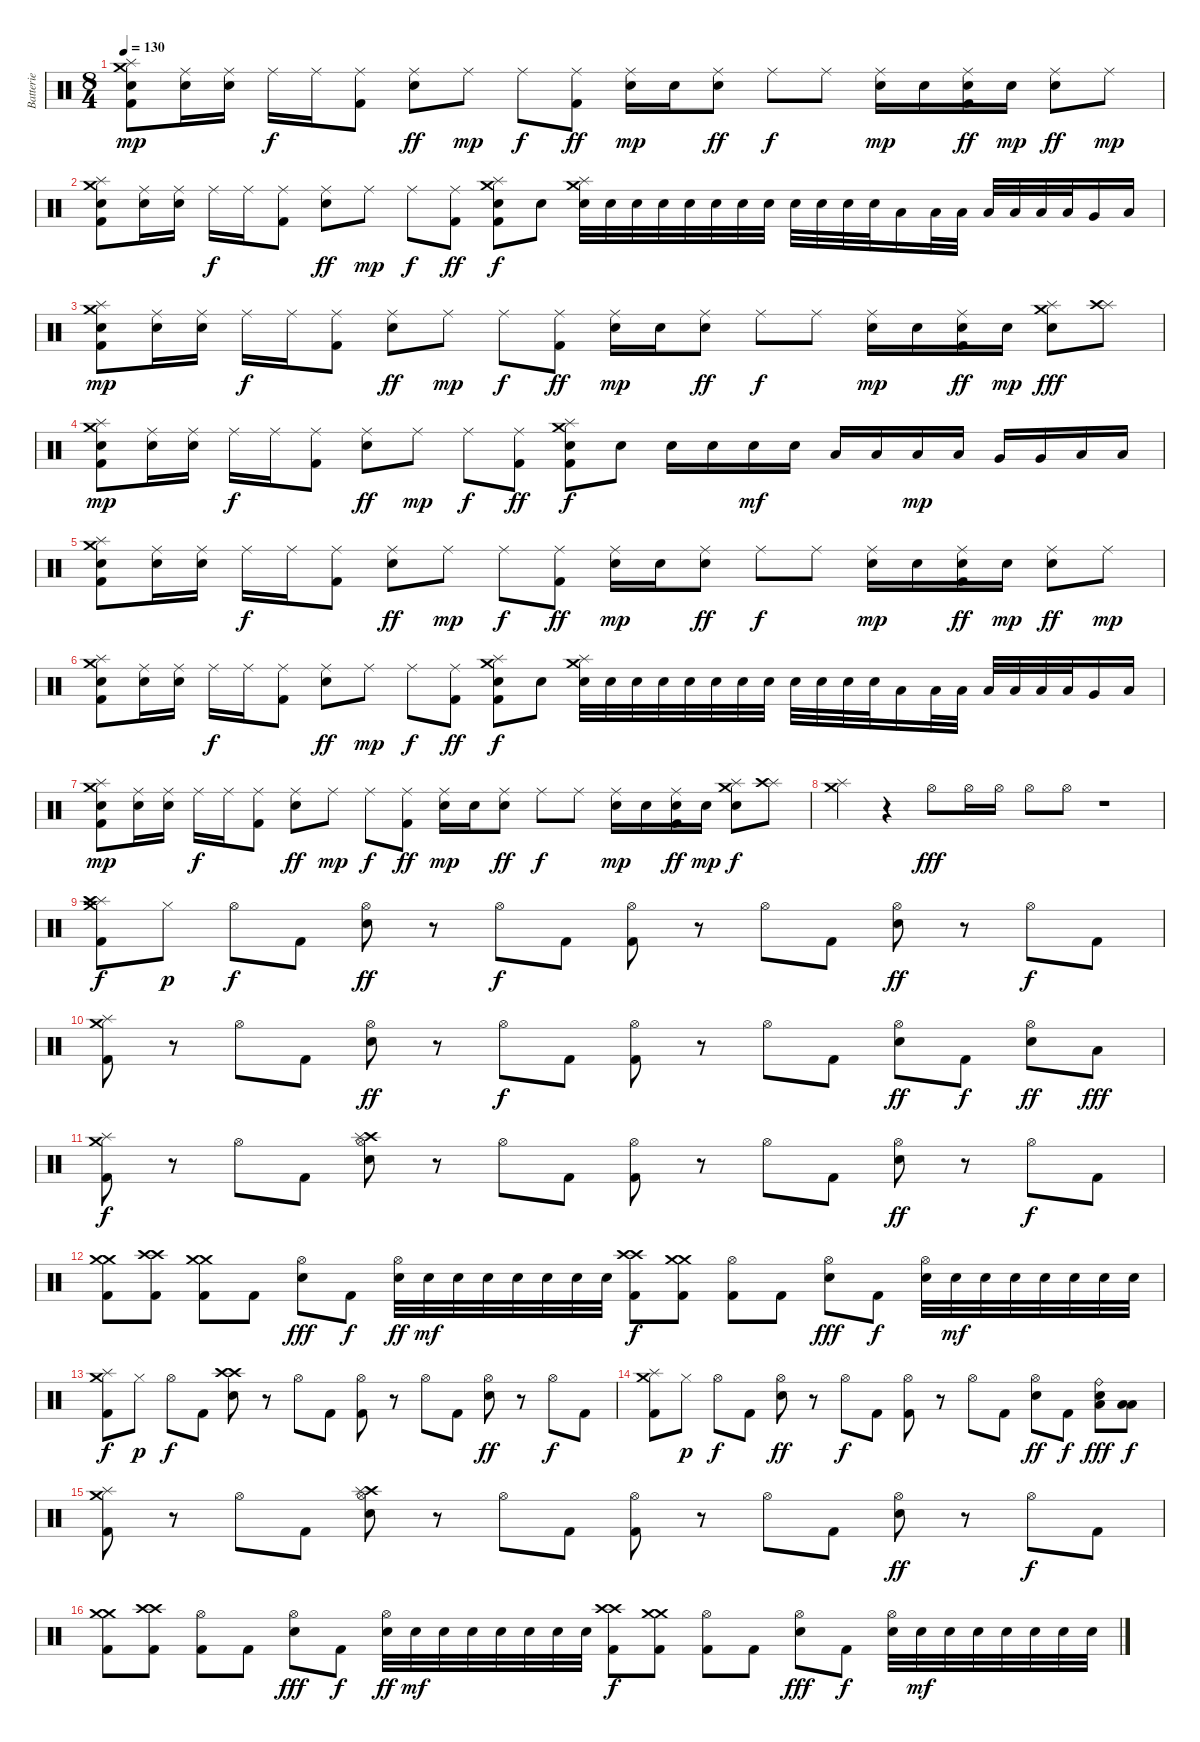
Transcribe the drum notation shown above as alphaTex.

\track ("Batterie" "Batterie") {instrument percussion}
\staff {score}
\articulation defaults
\ts (8 4)
\tempo 130
\clef neutral
\ks c
("Crash medium (hit)" "Splash (hit)" "Electric Snare (hit)" "Kick (hit) 2").8{dy mp} ("Ride (middle)" "Electric Snare (hit)").16 ("Ride (middle)" "Electric Snare (hit)").16 "Ride (middle)".16{dy f} "Ride (middle)".16 ("Ride (middle)" "Kick (hit) 2").8 ("Ride (middle)" "Electric Snare (hit)").8{dy ff} "Ride (middle)".8{dy mp} "Ride (middle)".8{dy f} ("Ride (middle)" "Kick (hit) 2").8{dy ff} ("Ride (middle)" "Electric Snare (hit)").16{dy mp} "Electric Snare (hit)".16 ("Ride (middle)" "Electric Snare (hit)").8{dy ff} "Ride (middle)".8{dy f} "Ride (middle)".8 ("Ride (middle)" "Electric Snare (hit)").16{dy mp} "Electric Snare (hit)".16 ("Ride (middle)" "Electric Snare (hit)" "Kick (hit) 2").16{dy ff} "Electric Snare (hit)".16{dy mp} ("Ride (middle)" "Electric Snare (hit)").8{dy ff} "Ride (middle)".8{dy mp} |
("Crash medium (hit)" "Splash (hit)" "Electric Snare (hit)" "Kick (hit) 2").8 ("Ride (middle)" "Electric Snare (hit)").16 ("Ride (middle)" "Electric Snare (hit)").16 "Ride (middle)".16{dy f} "Ride (middle)".16 ("Ride (middle)" "Kick (hit) 2").8 ("Ride (middle)" "Electric Snare (hit)").8{dy ff} "Ride (middle)".8{dy mp} "Ride (middle)".8{dy f} ("Ride (middle)" "Kick (hit) 2").8{dy ff} ("Crash medium (hit)" "Splash (hit)" "Electric Snare (hit)" "Kick (hit) 2").8{dy f} "Electric Snare (hit)".8 ("Crash medium (hit)" "Splash (hit)" "Electric Snare (hit)").32 "Electric Snare (hit)".32 "Electric Snare (hit)".32 "Electric Snare (hit)".32 "Electric Snare (hit)".32 "Electric Snare (hit)".32 "Electric Snare (hit)".32 "Electric Snare (hit)".32 "Electric Snare (hit)".32 "Electric Snare (hit)".32 "Electric Snare (hit)".32 "Electric Snare (hit)".32 "Low Tom (hit)".16 "Low Tom (hit)".32 "Low Tom (hit)".32 "Low Tom (hit)".32 "Low Tom (hit)".32 "Low Tom (hit)".32 "Low Tom (hit)".32 "Very Low Tom (hit)".16 "Low Floor Tom (hit)".16 |
("Crash medium (hit)" "Splash (hit)" "Electric Snare (hit)" "Kick (hit) 2").8{dy mp} ("Ride (middle)" "Electric Snare (hit)").16 ("Ride (middle)" "Electric Snare (hit)").16 "Ride (middle)".16{dy f} "Ride (middle)".16 ("Ride (middle)" "Kick (hit) 2").8 ("Ride (middle)" "Electric Snare (hit)").8{dy ff} "Ride (middle)".8{dy mp} "Ride (middle)".8{dy f} ("Ride (middle)" "Kick (hit) 2").8{dy ff} ("Ride (middle)" "Electric Snare (hit)").16{dy mp} "Electric Snare (hit)".16 ("Ride (middle)" "Electric Snare (hit)").8{dy ff} "Ride (middle)".8{dy f} "Ride (middle)".8 ("Ride (middle)" "Electric Snare (hit)").16{dy mp} "Electric Snare (hit)".16 ("Ride (middle)" "Electric Snare (hit)" "Kick (hit) 2").16{dy ff} "Electric Snare (hit)".16{dy mp} ("Splash (hit)" "Crash medium (hit)" "Electric Snare (hit)").8{dy fff} ("Splash (hit)" "Crash high (hit)").8 |
("Crash medium (hit)" "Splash (hit)" "Electric Snare (hit)" "Kick (hit) 2").8{dy mp} ("Ride (middle)" "Electric Snare (hit)").16 ("Ride (middle)" "Electric Snare (hit)").16 "Ride (middle)".16{dy f} "Ride (middle)".16 ("Ride (middle)" "Kick (hit) 2").8 ("Ride (middle)" "Electric Snare (hit)").8{dy ff} "Ride (middle)".8{dy mp} "Ride (middle)".8{dy f} ("Ride (middle)" "Kick (hit) 2").8{dy ff} ("Crash medium (hit)" "Splash (hit)" "Electric Snare (hit)" "Kick (hit) 2").8{dy f} "Electric Snare (hit)".8 "Electric Snare (hit)".16 "Electric Snare (hit)".16 "Electric Snare (hit)".16{dy mf} "Electric Snare (hit)".16 "Low Tom (hit)".16 "Low Tom (hit)".16 "Low Tom (hit)".16{dy mp} "Low Tom (hit)".16 "Very Low Tom (hit)".16 "Very Low Tom (hit)".16 "Low Floor Tom (hit)".16 "Low Floor Tom (hit)".16 |
("Crash medium (hit)" "Splash (hit)" "Electric Snare (hit)" "Kick (hit) 2").8 ("Ride (middle)" "Electric Snare (hit)").16 ("Ride (middle)" "Electric Snare (hit)").16 "Ride (middle)".16{dy f} "Ride (middle)".16 ("Ride (middle)" "Kick (hit) 2").8 ("Ride (middle)" "Electric Snare (hit)").8{dy ff} "Ride (middle)".8{dy mp} "Ride (middle)".8{dy f} ("Ride (middle)" "Kick (hit) 2").8{dy ff} ("Ride (middle)" "Electric Snare (hit)").16{dy mp} "Electric Snare (hit)".16 ("Ride (middle)" "Electric Snare (hit)").8{dy ff} "Ride (middle)".8{dy f} "Ride (middle)".8 ("Ride (middle)" "Electric Snare (hit)").16{dy mp} "Electric Snare (hit)".16 ("Ride (middle)" "Electric Snare (hit)" "Kick (hit) 2").16{dy ff} "Electric Snare (hit)".16{dy mp} ("Ride (middle)" "Electric Snare (hit)").8{dy ff} "Ride (middle)".8{dy mp} |
("Crash medium (hit)" "Splash (hit)" "Electric Snare (hit)" "Kick (hit) 2").8 ("Ride (middle)" "Electric Snare (hit)").16 ("Ride (middle)" "Electric Snare (hit)").16 "Ride (middle)".16{dy f} "Ride (middle)".16 ("Ride (middle)" "Kick (hit) 2").8 ("Ride (middle)" "Electric Snare (hit)").8{dy ff} "Ride (middle)".8{dy mp} "Ride (middle)".8{dy f} ("Ride (middle)" "Kick (hit) 2").8{dy ff} ("Crash medium (hit)" "Splash (hit)" "Electric Snare (hit)" "Kick (hit) 2").8{dy f} "Electric Snare (hit)".8 ("Crash medium (hit)" "Splash (hit)" "Electric Snare (hit)").32 "Electric Snare (hit)".32 "Electric Snare (hit)".32 "Electric Snare (hit)".32 "Electric Snare (hit)".32 "Electric Snare (hit)".32 "Electric Snare (hit)".32 "Electric Snare (hit)".32 "Electric Snare (hit)".32 "Electric Snare (hit)".32 "Electric Snare (hit)".32 "Electric Snare (hit)".32 "Low Tom (hit)".16 "Low Tom (hit)".32 "Low Tom (hit)".32 "Low Tom (hit)".32 "Low Tom (hit)".32 "Low Tom (hit)".32 "Low Tom (hit)".32 "Very Low Tom (hit)".16 "Low Floor Tom (hit)".16 |
("Crash medium (hit)" "Splash (hit)" "Electric Snare (hit)" "Kick (hit) 2").8{dy mp} ("Ride (middle)" "Electric Snare (hit)").16 ("Ride (middle)" "Electric Snare (hit)").16 "Ride (middle)".16{dy f} "Ride (middle)".16 ("Ride (middle)" "Kick (hit) 2").8 ("Ride (middle)" "Electric Snare (hit)").8{dy ff} "Ride (middle)".8{dy mp} "Ride (middle)".8{dy f} ("Ride (middle)" "Kick (hit) 2").8{dy ff} ("Ride (middle)" "Electric Snare (hit)").16{dy mp} "Electric Snare (hit)".16 ("Ride (middle)" "Electric Snare (hit)").8{dy ff} "Ride (middle)".8{dy f} "Ride (middle)".8 ("Ride (middle)" "Electric Snare (hit)").16{dy mp} "Electric Snare (hit)".16 ("Ride (middle)" "Electric Snare (hit)" "Kick (hit) 2").16{dy ff} "Electric Snare (hit)".16{dy mp} ("Splash (hit)" "Crash medium (hit)" "Electric Snare (hit)").8{dy f} ("Splash (hit)" "Crash high (hit)").8 |
("Crash medium (hit)" "Splash (hit)").4 r.4 "Hi-Hat (open)".8{dy fff} "Hi-Hat (open)".16 "Hi-Hat (open)".16 "Hi-Hat (open)".8 "Hi-Hat (open)".8 r.1 |
("Crash medium (hit)" "Splash (hit)" "Crash high (hit)" "Kick (hit) 2").8{dy f} "Hi-Hat (closed)".8{dy p} "Hi-Hat (open)".8{dy f} "Kick (hit) 2".8 ("Hi-Hat (open)" "Electric Snare (hit)").8{dy ff} r.8 "Hi-Hat (open)".8{dy f} "Kick (hit) 2".8 ("Hi-Hat (open)" "Kick (hit) 2").8 r.8 "Hi-Hat (open)".8 "Kick (hit) 2".8 ("Hi-Hat (open)" "Electric Snare (hit)").8{dy ff} r.8 "Hi-Hat (open)".8{dy f} "Kick (hit) 2".8 |
("Crash medium (hit)" "Splash (hit)" "Kick (hit) 2").8 r.8 "Hi-Hat (open)".8 "Kick (hit) 2".8 ("Hi-Hat (open)" "Electric Snare (hit)").8{dy ff} r.8 "Hi-Hat (open)".8{dy f} "Kick (hit) 2".8 ("Hi-Hat (open)" "Kick (hit) 2").8 r.8 "Hi-Hat (open)".8 "Kick (hit) 2".8 ("Hi-Hat (open)" "Electric Snare (hit)").8{dy ff} "Kick (hit) 2".8{dy f} ("Hi-Hat (open)" "Electric Snare (hit)").8{dy ff} "Low Tom (hit)".8{dy fff} |
("Splash (hit)" "Crash medium (hit)" "Kick (hit) 2").8{dy f} r.8 "Hi-Hat (open)".8 "Kick (hit) 2".8 ("Crash high (hit)" "Splash (hit)" "Hi-Hat (open)" "Electric Snare (hit)").8 r.8 "Hi-Hat (open)".8 "Kick (hit) 2".8 ("Hi-Hat (open)" "Kick (hit) 2").8 r.8 "Hi-Hat (open)".8 "Kick (hit) 2".8 ("Hi-Hat (open)" "Electric Snare (hit)").8{dy ff} r.8 "Hi-Hat (open)".8{dy f} "Kick (hit) 2".8 |
("Crash medium (hit)" "Crash medium (hit)" "Kick (hit) 2").8 ("Crash high (hit)" "Crash high (hit)" "Kick (hit) 2").8 ("Crash medium (hit)" "Crash medium (hit)" "Kick (hit) 2").8 "Kick (hit) 2".8 ("Hi-Hat (open)" "Electric Snare (hit)").8{dy fff} "Kick (hit) 2".8{dy f} ("Hi-Hat (open)" "Electric Snare (hit)").32{dy ff} "Electric Snare (hit)".32{dy mf} "Electric Snare (hit)".32 "Electric Snare (hit)".32 "Electric Snare (hit)".32 "Electric Snare (hit)".32 "Electric Snare (hit)".32 "Electric Snare (hit)".32 ("Crash high (hit)" "Crash high (hit)" "Kick (hit) 2").8{dy f} ("Crash medium (hit)" "Crash medium (hit)" "Kick (hit) 2").8 ("Hi-Hat (open)" "Kick (hit) 2").8 "Kick (hit) 2".8 ("Hi-Hat (open)" "Electric Snare (hit)").8{dy fff} "Kick (hit) 2".8{dy f} ("Hi-Hat (open)" "Electric Snare (hit)").32 "Electric Snare (hit)".32{dy mf} "Electric Snare (hit)".32 "Electric Snare (hit)".32 "Electric Snare (hit)".32 "Electric Snare (hit)".32 "Electric Snare (hit)".32 "Electric Snare (hit)".32 |
("Splash (hit)" "Crash medium (hit)" "Kick (hit) 2").8{dy f} "Hi-Hat (closed)".8{dy p} "Hi-Hat (open)".8{dy f} "Kick (hit) 2".8 ("Crash high (hit)" "Crash high (hit)" "Electric Snare (hit)").8 r.8 "Hi-Hat (open)".8 "Kick (hit) 2".8 ("Hi-Hat (open)" "Kick (hit) 2").8 r.8 "Hi-Hat (open)".8 "Kick (hit) 2".8 ("Hi-Hat (open)" "Electric Snare (hit)").8{dy ff} r.8 "Hi-Hat (open)".8{dy f} "Kick (hit) 2".8 |
("Splash (hit)" "Crash medium (hit)" "Kick (hit) 2").8 "Hi-Hat (closed)".8{dy p} "Hi-Hat (open)".8{dy f} "Kick (hit) 2".8 ("Hi-Hat (open)" "Electric Snare (hit)").8{dy ff} r.8 "Hi-Hat (open)".8{dy f} "Kick (hit) 2".8 ("Hi-Hat (open)" "Kick (hit) 2").8 r.8 "Hi-Hat (open)".8 "Kick (hit) 2".8 ("Hi-Hat (open)" "Electric Snare (hit)").8{dy ff} "Kick (hit) 2".8{dy f} ("Ride (bell)" "Low Floor Tom (hit)" "Electric Snare (hit)").8{dy fff} ("Low Floor Tom (hit)" "Low Floor Tom (hit)").8{dy f} |
("Splash (hit)" "Crash medium (hit)" "Kick (hit) 2").8 r.8 "Hi-Hat (open)".8 "Kick (hit) 2".8 ("Crash high (hit)" "Splash (hit)" "Hi-Hat (open)" "Electric Snare (hit)").8 r.8 "Hi-Hat (open)".8 "Kick (hit) 2".8 ("Hi-Hat (open)" "Kick (hit) 2").8 r.8 "Hi-Hat (open)".8 "Kick (hit) 2".8 ("Hi-Hat (open)" "Electric Snare (hit)").8{dy ff} r.8 "Hi-Hat (open)".8{dy f} "Kick (hit) 2".8 |
("Crash medium (hit)" "Crash medium (hit)" "Kick (hit) 2").8 ("Crash high (hit)" "Crash high (hit)" "Kick (hit) 2").8 ("Hi-Hat (open)" "Kick (hit) 2").8 "Kick (hit) 2".8 ("Hi-Hat (open)" "Electric Snare (hit)").8{dy fff} "Kick (hit) 2".8{dy f} ("Hi-Hat (open)" "Electric Snare (hit)").32{dy ff} "Electric Snare (hit)".32{dy mf} "Electric Snare (hit)".32 "Electric Snare (hit)".32 "Electric Snare (hit)".32 "Electric Snare (hit)".32 "Electric Snare (hit)".32 "Electric Snare (hit)".32 ("Crash high (hit)" "Crash high (hit)" "Kick (hit) 2").8{dy f} ("Crash medium (hit)" "Crash medium (hit)" "Kick (hit) 2").8 ("Hi-Hat (open)" "Kick (hit) 2").8 "Kick (hit) 2".8 ("Hi-Hat (open)" "Electric Snare (hit)").8{dy fff} "Kick (hit) 2".8{dy f} ("Hi-Hat (open)" "Electric Snare (hit)").32 "Electric Snare (hit)".32{dy mf} "Electric Snare (hit)".32 "Electric Snare (hit)".32 "Electric Snare (hit)".32 "Electric Snare (hit)".32 "Electric Snare (hit)".32 "Electric Snare (hit)".32
